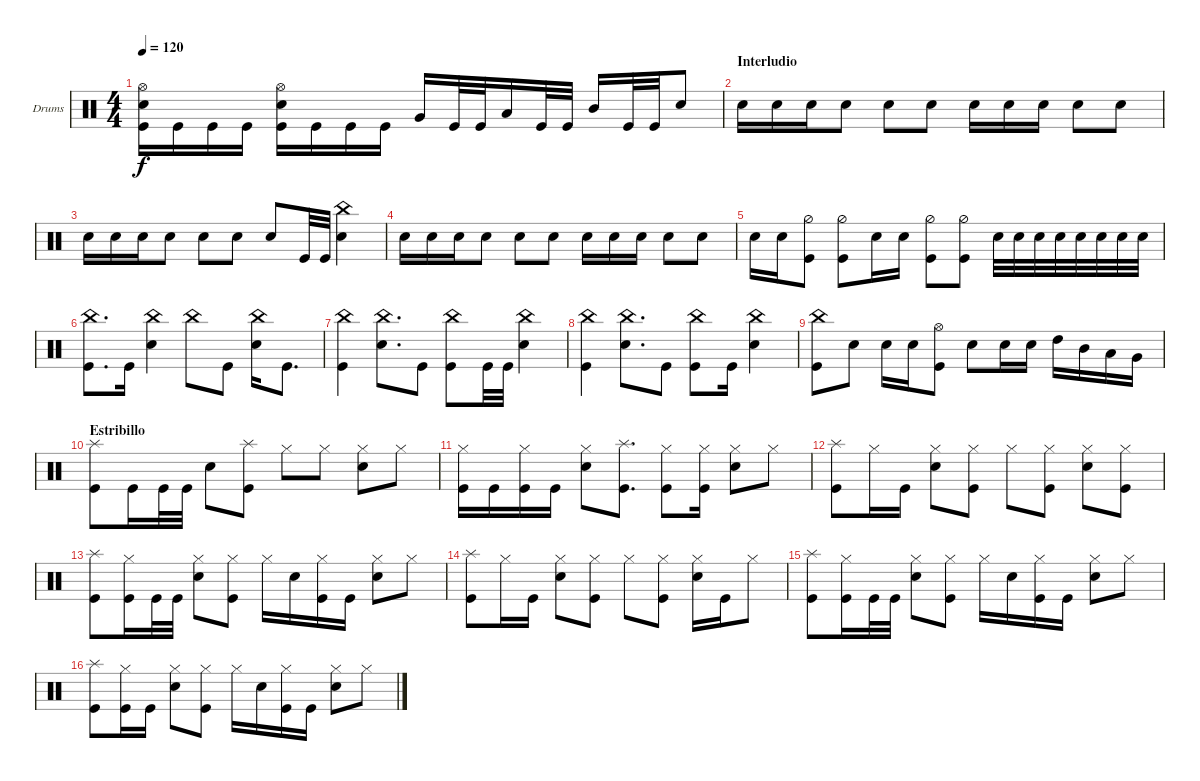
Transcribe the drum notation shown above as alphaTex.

\bracketExtendMode groupsimilarinstruments
\firstSystemTrackNameOrientation horizontal
\otherSystemsTrackNameOrientation horizontal
\track ("Drumkit" "Drums") {instrument percussion}
\staff {score}
\articulation defaults
\ts (4 4)
\tempo 120
\clef neutral
\ks c
("Kick (hit)" "Snare (hit) 2" "Hi-Hat (open)").16{dy f} "Kick (hit)".16 "Kick (hit)".16 "Kick (hit)".16 ("Kick (hit)" "Snare (hit) 2" "Hi-Hat (open)").16 "Kick (hit)".16 "Kick (hit)".16 "Kick (hit)".16 "Very Low Tom (hit)".16 "Kick (hit)".32 "Kick (hit)".32 "Low Tom (hit)".16 "Kick (hit)".32 "Kick (hit)".32 "Mid Tom (hit)".16 "Kick (hit)".32 "Kick (hit)".32 "Snare (hit) 2".8 |
\section ("" "Interludio")
"Snare (hit) 2".16 "Snare (hit) 2".16 "Snare (hit) 2".16 "Snare (hit) 2".8 "Snare (hit) 2".8 "Snare (hit) 2".8 "Snare (hit) 2".16 "Snare (hit) 2".16 "Snare (hit) 2".16 "Snare (hit) 2".8 "Snare (hit) 2".8 |
"Snare (hit) 2".16 "Snare (hit) 2".16 "Snare (hit) 2".16 "Snare (hit) 2".8 "Snare (hit) 2".8 "Snare (hit) 2".8 "Snare (hit) 2".8 "Kick (hit)".32 "Kick (hit)".32 ("Snare (hit) 2" "China (hit)").4 |
"Snare (hit) 2".16 "Snare (hit) 2".16 "Snare (hit) 2".16 "Snare (hit) 2".8 "Snare (hit) 2".8 "Snare (hit) 2".8 "Snare (hit) 2".16 "Snare (hit) 2".16 "Snare (hit) 2".16 "Snare (hit) 2".8 "Snare (hit) 2".8 |
"Snare (hit) 2".16 "Snare (hit) 2".16 ("Kick (hit)" "Hi-Hat (half)").8 ("Kick (hit)" "Hi-Hat (half)").8 "Snare (hit) 2".16 "Snare (hit) 2".16 ("Kick (hit)" "Hi-Hat (half)").8 ("Kick (hit)" "Hi-Hat (half)").8 "Snare (hit) 2".32 "Snare (hit) 2".32 "Snare (hit) 2".32 "Snare (hit) 2".32 "Snare (hit) 2".32 "Snare (hit) 2".32 "Snare (hit) 2".32 "Snare (hit) 2".32 |
("Kick (hit)" "China (hit)").8{d} "Kick (hit)".16 ("Snare (hit) 2" "China (hit)").4 "China (hit)".8 "Kick (hit)".8 ("Snare (hit) 2" "China (hit)").16 "Kick (hit)".8{d} |
("Kick (hit)" "China (hit)").4 ("Snare (hit) 2" "China (hit)").8{d} "Kick (hit)".8 ("Kick (hit)" "China (hit)").8 "Kick (hit)".32 "Kick (hit)".32 ("Snare (hit) 2" "China (hit)").4 |
("Kick (hit)" "China (hit)").4 ("Snare (hit) 2" "China (hit)").8{d} "Kick (hit)".8 ("Kick (hit)" "China (hit)").8 "Kick (hit)".16 ("Snare (hit) 2" "China (hit)").4 |
("Kick (hit)" "China (hit)").8 "Snare (hit) 2".8 "Snare (hit) 2".16 "Snare (hit) 2".16 ("Kick (hit)" "Hi-Hat (open)").8 "Snare (hit) 2".8 "Snare (hit) 2".16 "Snare (hit) 2".16 "High Tom (hit)".16 "Mid Tom (hit)".16 "Low Tom (hit)".16 "Very Low Tom (hit)".16 |
\section ("" "Estribillo")
("Kick (hit)" "Splash (hit)").8 "Kick (hit)".16 "Kick (hit)".32 "Kick (hit)".32 "Snare (hit) 2".8 ("Kick (hit)" "Splash (hit)").8 "Hi-Hat (closed)".8 "Hi-Hat (closed)".8 ("Hi-Hat (closed)" "Snare (hit) 2").8 "Hi-Hat (closed)".8 |
("Kick (hit)" "Hi-Hat (closed)").16 "Kick (hit)".16 ("Kick (hit)" "Hi-Hat (closed)").16 "Kick (hit)".16 ("Snare (hit) 2" "Hi-Hat (closed)").8 ("Kick (hit)" "Splash (hit)").8{d} ("Kick (hit)" "Hi-Hat (closed)").8 ("Kick (hit)" "Hi-Hat (closed)").16 ("Snare (hit) 2" "Hi-Hat (closed)").8 "Hi-Hat (closed)".8 |
("Kick (hit)" "Splash (hit)").8 "Hi-Hat (closed)".16 "Kick (hit)".16 ("Hi-Hat (closed)" "Snare (hit) 2").8 ("Hi-Hat (closed)" "Kick (hit)").8 "Hi-Hat (closed)".8 ("Hi-Hat (closed)" "Kick (hit)").8 ("Hi-Hat (closed)" "Snare (hit) 2").8 ("Hi-Hat (closed)" "Kick (hit)").8 |
("Kick (hit)" "Splash (hit)").8 ("Hi-Hat (closed)" "Kick (hit)").16 "Kick (hit)".32 "Kick (hit)".32 ("Hi-Hat (closed)" "Snare (hit) 2").8 ("Hi-Hat (closed)" "Kick (hit)").8 "Hi-Hat (closed)".16 "Snare (hit) 2".16 ("Hi-Hat (closed)" "Kick (hit)").16 "Kick (hit)".16 ("Hi-Hat (closed)" "Snare (hit) 2").8 "Hi-Hat (closed)".8 |
("Kick (hit)" "Splash (hit)").8 "Hi-Hat (closed)".16 "Kick (hit)".16 ("Hi-Hat (closed)" "Snare (hit) 2").8 ("Hi-Hat (closed)" "Kick (hit)").8 "Hi-Hat (closed)".8 ("Hi-Hat (closed)" "Kick (hit)").8 ("Hi-Hat (closed)" "Snare (hit) 2").16 "Kick (hit)".16 "Hi-Hat (closed)".8 |
("Kick (hit)" "Splash (hit)").8 ("Hi-Hat (closed)" "Kick (hit)").16 "Kick (hit)".32 "Kick (hit)".32 ("Hi-Hat (closed)" "Snare (hit) 2").8 ("Hi-Hat (closed)" "Kick (hit)").8 "Hi-Hat (closed)".16 "Snare (hit) 2".16 ("Hi-Hat (closed)" "Kick (hit)").16 "Kick (hit)".16 ("Hi-Hat (closed)" "Snare (hit) 2").8 "Hi-Hat (closed)".8 |
("Kick (hit)" "Splash (hit)").8 ("Hi-Hat (closed)" "Kick (hit)").16 "Kick (hit)".16 ("Hi-Hat (closed)" "Snare (hit) 2").8 ("Hi-Hat (closed)" "Kick (hit)").8 "Hi-Hat (closed)".16 "Snare (hit) 2".16 ("Hi-Hat (closed)" "Kick (hit)").16 "Kick (hit)".16 ("Hi-Hat (closed)" "Snare (hit) 2").8 "Hi-Hat (closed)".8
